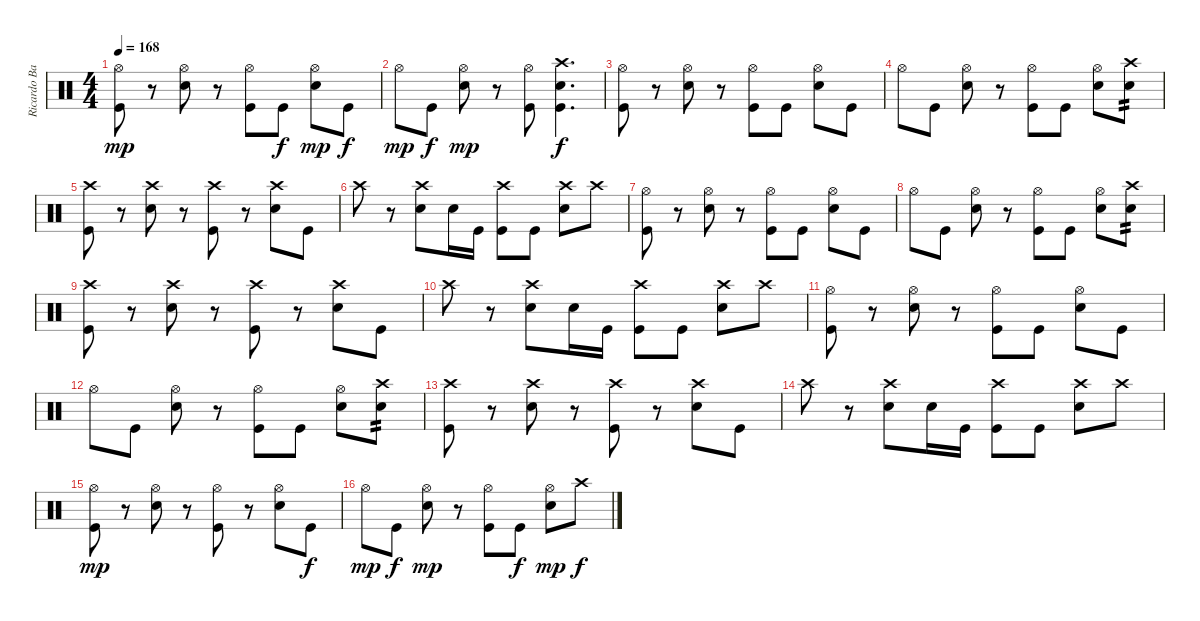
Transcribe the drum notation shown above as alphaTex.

\track ("Ricardo Barrenechea" "Ricardo Ba") {instrument percussion}
\staff {score}
\articulation defaults
\ts (4 4)
\tempo 168
\clef neutral
\ks c
("Hi-Hat (open)" "Kick (hit)").8{dy mp} r.8 ("Hi-Hat (open)" "Snare (hit) 2").8 r.8 ("Hi-Hat (open)" "Kick (hit)").8 "Kick (hit)".8{dy f} ("Hi-Hat (open)" "Snare (hit) 2").8{dy mp} "Kick (hit)".8{dy f} |
"Hi-Hat (open)".8{dy mp} "Kick (hit)".8{dy f} ("Hi-Hat (open)" "Snare (hit) 2").8{dy mp} r.8 ("Hi-Hat (open)" "Kick (hit)").8 ("Crash high (hit)" "Snare (hit) 2" "Kick (hit)").4{d dy f} |
("Hi-Hat (open)" "Kick (hit)").8 r.8 ("Hi-Hat (open)" "Snare (hit) 2").8 r.8 ("Hi-Hat (open)" "Kick (hit)").8 "Kick (hit)".8 ("Hi-Hat (open)" "Snare (hit) 2").8 "Kick (hit)".8 |
"Hi-Hat (open)".8 "Kick (hit)".8 ("Hi-Hat (open)" "Snare (hit) 2").8 r.8 ("Hi-Hat (open)" "Kick (hit)").8 "Kick (hit)".8 ("Hi-Hat (open)" "Snare (hit) 2").8 ("Crash high (hit)" "Snare (hit) 2").8{tp 2} |
("Crash high (hit)" "Kick (hit)").8 r.8 ("Crash high (hit)" "Snare (hit) 2").8 r.8 ("Crash high (hit)" "Kick (hit)").8 r.8 ("Crash high (hit)" "Snare (hit) 2").8 "Kick (hit)".8 |
"Crash high (hit)".8 r.8 ("Crash high (hit)" "Snare (hit) 2").8 "Snare (hit) 2".16 "Kick (hit)".16 ("Crash high (hit)" "Kick (hit)").8 "Kick (hit)".8 ("Crash high (hit)" "Snare (hit) 2").8 "Crash high (hit)".8 |
("Hi-Hat (open)" "Kick (hit)").8 r.8 ("Hi-Hat (open)" "Snare (hit) 2").8 r.8 ("Hi-Hat (open)" "Kick (hit)").8 "Kick (hit)".8 ("Hi-Hat (open)" "Snare (hit) 2").8 "Kick (hit)".8 |
"Hi-Hat (open)".8 "Kick (hit)".8 ("Hi-Hat (open)" "Snare (hit) 2").8 r.8 ("Hi-Hat (open)" "Kick (hit)").8 "Kick (hit)".8 ("Hi-Hat (open)" "Snare (hit) 2").8 ("Crash high (hit)" "Snare (hit) 2").8{tp 2} |
("Crash high (hit)" "Kick (hit)").8 r.8 ("Crash high (hit)" "Snare (hit) 2").8 r.8 ("Crash high (hit)" "Kick (hit)").8 r.8 ("Crash high (hit)" "Snare (hit) 2").8 "Kick (hit)".8 |
"Crash high (hit)".8 r.8 ("Crash high (hit)" "Snare (hit) 2").8 "Snare (hit) 2".16 "Kick (hit)".16 ("Crash high (hit)" "Kick (hit)").8 "Kick (hit)".8 ("Crash high (hit)" "Snare (hit) 2").8 "Crash high (hit)".8 |
("Hi-Hat (open)" "Kick (hit)").8 r.8 ("Hi-Hat (open)" "Snare (hit) 2").8 r.8 ("Hi-Hat (open)" "Kick (hit)").8 "Kick (hit)".8 ("Hi-Hat (open)" "Snare (hit) 2").8 "Kick (hit)".8 |
"Hi-Hat (open)".8 "Kick (hit)".8 ("Hi-Hat (open)" "Snare (hit) 2").8 r.8 ("Hi-Hat (open)" "Kick (hit)").8 "Kick (hit)".8 ("Hi-Hat (open)" "Snare (hit) 2").8 ("Crash high (hit)" "Snare (hit) 2").8{tp 2} |
("Crash high (hit)" "Kick (hit)").8 r.8 ("Crash high (hit)" "Snare (hit) 2").8 r.8 ("Crash high (hit)" "Kick (hit)").8 r.8 ("Crash high (hit)" "Snare (hit) 2").8 "Kick (hit)".8 |
"Crash high (hit)".8 r.8 ("Crash high (hit)" "Snare (hit) 2").8 "Snare (hit) 2".16 "Kick (hit)".16 ("Crash high (hit)" "Kick (hit)").8 "Kick (hit)".8 ("Crash high (hit)" "Snare (hit) 2").8 "Crash high (hit)".8 |
("Hi-Hat (open)" "Kick (hit)").8{dy mp} r.8 ("Hi-Hat (open)" "Snare (hit) 2").8 r.8 ("Hi-Hat (open)" "Kick (hit)").8 r.8 ("Hi-Hat (open)" "Snare (hit) 2").8 "Kick (hit)".8{dy f} |
"Hi-Hat (open)".8{dy mp} "Kick (hit)".8{dy f} ("Hi-Hat (open)" "Snare (hit) 2").8{dy mp} r.8 ("Hi-Hat (open)" "Kick (hit)").8 "Kick (hit)".8{dy f} ("Hi-Hat (open)" "Snare (hit) 2").8{dy mp} "Crash high (hit)".8{dy f}
